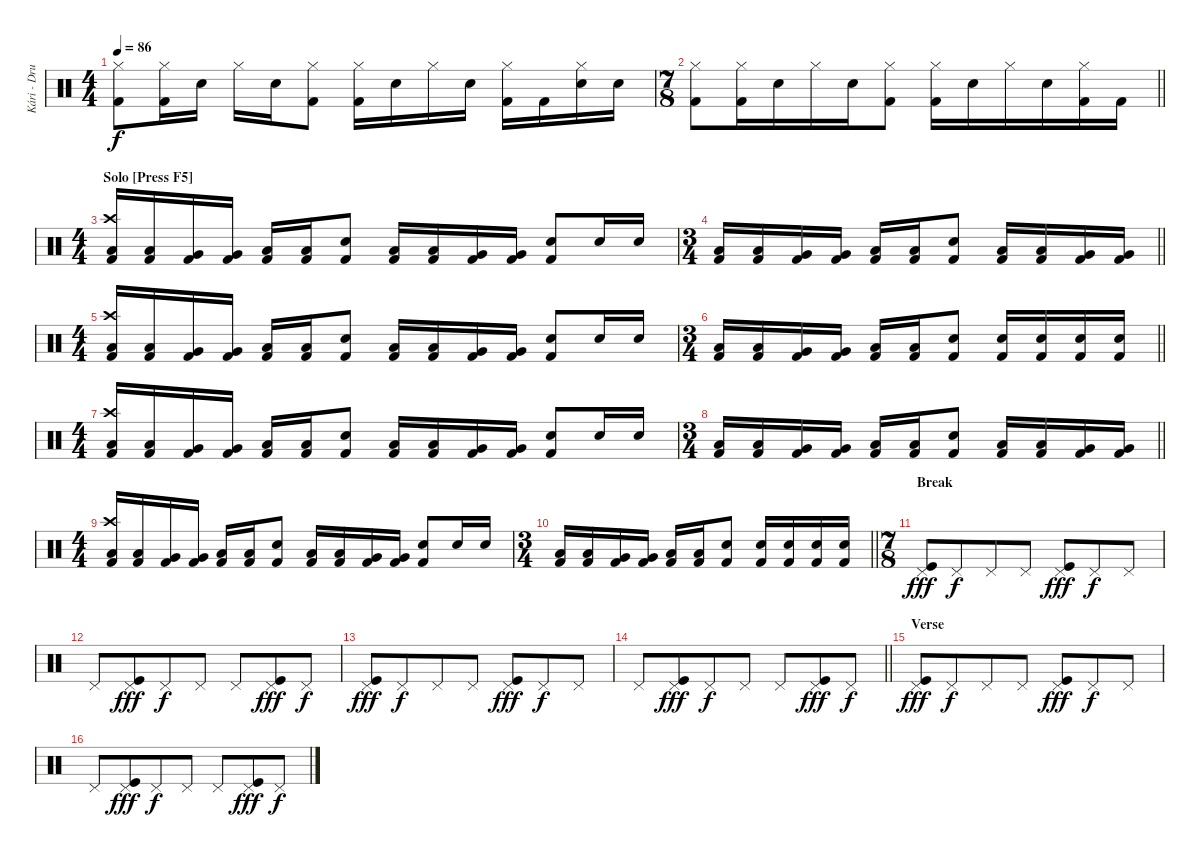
\track ("Kári - Drums" "Kári - Dru") {instrument percussion}
\staff {score}
\articulation defaults
\ts (4 4)
\tempo 86
\clef neutral
\ks c
("Hi-Hat (closed)" "Kick (hit) 2").8{dy f} ("Hi-Hat (closed)" "Kick (hit) 2").16 "Electric Snare (hit)".16 "Hi-Hat (closed)".16 "Electric Snare (hit)".16 ("Hi-Hat (closed)" "Kick (hit) 2").8 ("Hi-Hat (closed)" "Kick (hit) 2").16 "Electric Snare (hit)".16 "Hi-Hat (closed)".16 "Electric Snare (hit)".16 ("Hi-Hat (closed)" "Kick (hit) 2").16 "Kick (hit) 2".16 ("Hi-Hat (closed)" "Electric Snare (hit)").16 "Electric Snare (hit)".16 |
\ts (7 8)
\barLineRight lightlight
("Hi-Hat (closed)" "Kick (hit) 2").8{beam merge} ("Hi-Hat (closed)" "Kick (hit) 2").16 "Electric Snare (hit)".16 "Hi-Hat (closed)".16 "Electric Snare (hit)".16{beam merge} ("Hi-Hat (closed)" "Kick (hit) 2").8 ("Hi-Hat (closed)" "Kick (hit) 2").16 "Electric Snare (hit)".16{beam merge} "Hi-Hat (closed)".16 "Electric Snare (hit)".16{beam merge} ("Hi-Hat (closed)" "Kick (hit) 2").16 "Kick (hit) 2".16 |
\ts (4 4)
\section ("" "Solo [Press F5]")
("Crash high (hit)" "Low Tom (hit)" "Kick (hit) 2").16 ("Low Tom (hit)" "Kick (hit) 2").16 ("Very Low Tom (hit)" "Kick (hit) 2").16 ("Very Low Tom (hit)" "Kick (hit) 2").16 ("Low Floor Tom (hit)" "Kick (hit) 2").16 ("Low Floor Tom (hit)" "Kick (hit) 2").16 ("Electric Snare (hit)" "Kick (hit) 2").8 ("Low Tom (hit)" "Kick (hit) 2").16 ("Low Tom (hit)" "Kick (hit) 2").16 ("Very Low Tom (hit)" "Kick (hit) 2").16 ("Very Low Tom (hit)" "Kick (hit) 2").16 ("Electric Snare (hit)" "Kick (hit) 2").8 "Electric Snare (hit)".16 "Electric Snare (hit)".16 |
\ts (3 4)
\barLineRight lightlight
("Low Tom (hit)" "Kick (hit) 2").16 ("Low Tom (hit)" "Kick (hit) 2").16 ("Very Low Tom (hit)" "Kick (hit) 2").16 ("Very Low Tom (hit)" "Kick (hit) 2").16 ("Low Floor Tom (hit)" "Kick (hit) 2").16 ("Low Floor Tom (hit)" "Kick (hit) 2").16 ("Electric Snare (hit)" "Kick (hit) 2").8 ("Low Tom (hit)" "Kick (hit) 2").16 ("Low Tom (hit)" "Kick (hit) 2").16 ("Very Low Tom (hit)" "Kick (hit) 2").16 ("Very Low Tom (hit)" "Kick (hit) 2").16 |
\ts (4 4)
("Crash high (hit)" "Low Tom (hit)" "Kick (hit) 2").16 ("Low Tom (hit)" "Kick (hit) 2").16 ("Very Low Tom (hit)" "Kick (hit) 2").16 ("Very Low Tom (hit)" "Kick (hit) 2").16 ("Low Floor Tom (hit)" "Kick (hit) 2").16 ("Low Floor Tom (hit)" "Kick (hit) 2").16 ("Electric Snare (hit)" "Kick (hit) 2").8 ("Low Tom (hit)" "Kick (hit) 2").16 ("Low Tom (hit)" "Kick (hit) 2").16 ("Very Low Tom (hit)" "Kick (hit) 2").16 ("Very Low Tom (hit)" "Kick (hit) 2").16 ("Electric Snare (hit)" "Kick (hit) 2").8 "Electric Snare (hit)".16 "Electric Snare (hit)".16 |
\ts (3 4)
\barLineRight lightlight
("Low Tom (hit)" "Kick (hit) 2").16 ("Low Tom (hit)" "Kick (hit) 2").16 ("Very Low Tom (hit)" "Kick (hit) 2").16 ("Very Low Tom (hit)" "Kick (hit) 2").16 ("Low Floor Tom (hit)" "Kick (hit) 2").16 ("Low Floor Tom (hit)" "Kick (hit) 2").16 ("Electric Snare (hit)" "Kick (hit) 2").8 ("Electric Snare (hit)" "Kick (hit) 2").16 ("Electric Snare (hit)" "Kick (hit) 2").16 ("Electric Snare (hit)" "Kick (hit) 2").16 ("Electric Snare (hit)" "Kick (hit) 2").16 |
\ts (4 4)
("Crash high (hit)" "Low Tom (hit)" "Kick (hit) 2").16 ("Low Tom (hit)" "Kick (hit) 2").16 ("Very Low Tom (hit)" "Kick (hit) 2").16 ("Very Low Tom (hit)" "Kick (hit) 2").16 ("Low Floor Tom (hit)" "Kick (hit) 2").16 ("Low Floor Tom (hit)" "Kick (hit) 2").16 ("Electric Snare (hit)" "Kick (hit) 2").8 ("Low Tom (hit)" "Kick (hit) 2").16 ("Low Tom (hit)" "Kick (hit) 2").16 ("Very Low Tom (hit)" "Kick (hit) 2").16 ("Very Low Tom (hit)" "Kick (hit) 2").16 ("Electric Snare (hit)" "Kick (hit) 2").8 "Electric Snare (hit)".16 "Electric Snare (hit)".16 |
\ts (3 4)
\barLineRight lightlight
("Low Tom (hit)" "Kick (hit) 2").16 ("Low Tom (hit)" "Kick (hit) 2").16 ("Very Low Tom (hit)" "Kick (hit) 2").16 ("Very Low Tom (hit)" "Kick (hit) 2").16 ("Low Floor Tom (hit)" "Kick (hit) 2").16 ("Low Floor Tom (hit)" "Kick (hit) 2").16 ("Electric Snare (hit)" "Kick (hit) 2").8 ("Low Tom (hit)" "Kick (hit) 2").16 ("Low Tom (hit)" "Kick (hit) 2").16 ("Very Low Tom (hit)" "Kick (hit) 2").16 ("Very Low Tom (hit)" "Kick (hit) 2").16 |
\ts (4 4)
("Crash high (hit)" "Low Tom (hit)" "Kick (hit) 2").16 ("Low Tom (hit)" "Kick (hit) 2").16 ("Very Low Tom (hit)" "Kick (hit) 2").16 ("Very Low Tom (hit)" "Kick (hit) 2").16 ("Low Floor Tom (hit)" "Kick (hit) 2").16 ("Low Floor Tom (hit)" "Kick (hit) 2").16 ("Electric Snare (hit)" "Kick (hit) 2").8 ("Low Tom (hit)" "Kick (hit) 2").16 ("Low Tom (hit)" "Kick (hit) 2").16 ("Very Low Tom (hit)" "Kick (hit) 2").16 ("Very Low Tom (hit)" "Kick (hit) 2").16 ("Electric Snare (hit)" "Kick (hit) 2").8 "Electric Snare (hit)".16 "Electric Snare (hit)".16 |
\ts (3 4)
\barLineRight lightlight
("Low Tom (hit)" "Kick (hit) 2").16 ("Low Tom (hit)" "Kick (hit) 2").16 ("Very Low Tom (hit)" "Kick (hit) 2").16 ("Very Low Tom (hit)" "Kick (hit) 2").16 ("Low Floor Tom (hit)" "Kick (hit) 2").16 ("Low Floor Tom (hit)" "Kick (hit) 2").16 ("Electric Snare (hit)" "Kick (hit) 2").8 ("Electric Snare (hit)" "Kick (hit) 2").16 ("Electric Snare (hit)" "Kick (hit) 2").16 ("Electric Snare (hit)" "Kick (hit) 2").16 ("Electric Snare (hit)" "Kick (hit) 2").16 |
\ts (7 8)
\section ("" "Break")
("Pedal Hi-Hat (hit)" "Kick (hit)").8{dy fff} "Pedal Hi-Hat (hit)".8{dy f} "Pedal Hi-Hat (hit)".8 "Pedal Hi-Hat (hit)".8 ("Pedal Hi-Hat (hit)" "Kick (hit)").8{dy fff} "Pedal Hi-Hat (hit)".8{dy f} "Pedal Hi-Hat (hit)".8 |
"Pedal Hi-Hat (hit)".8 ("Pedal Hi-Hat (hit)" "Kick (hit)").8{dy fff} "Pedal Hi-Hat (hit)".8{dy f} "Pedal Hi-Hat (hit)".8 "Pedal Hi-Hat (hit)".8 ("Pedal Hi-Hat (hit)" "Kick (hit)").8{dy fff} "Pedal Hi-Hat (hit)".8{dy f} |
("Pedal Hi-Hat (hit)" "Kick (hit)").8{dy fff} "Pedal Hi-Hat (hit)".8{dy f} "Pedal Hi-Hat (hit)".8 "Pedal Hi-Hat (hit)".8 ("Pedal Hi-Hat (hit)" "Kick (hit)").8{dy fff} "Pedal Hi-Hat (hit)".8{dy f} "Pedal Hi-Hat (hit)".8 |
\barLineRight lightlight "Pedal Hi-Hat (hit)".8
("Pedal Hi-Hat (hit)" "Kick (hit)").8{dy fff} "Pedal Hi-Hat (hit)".8{dy f} "Pedal Hi-Hat (hit)".8 "Pedal Hi-Hat (hit)".8 ("Pedal Hi-Hat (hit)" "Kick (hit)").8{dy fff} "Pedal Hi-Hat (hit)".8{dy f} |
\section ("" "Verse")
("Pedal Hi-Hat (hit)" "Kick (hit)").8{dy fff} "Pedal Hi-Hat (hit)".8{dy f} "Pedal Hi-Hat (hit)".8 "Pedal Hi-Hat (hit)".8 ("Pedal Hi-Hat (hit)" "Kick (hit)").8{dy fff} "Pedal Hi-Hat (hit)".8{dy f} "Pedal Hi-Hat (hit)".8 |
"Pedal Hi-Hat (hit)".8 ("Pedal Hi-Hat (hit)" "Kick (hit)").8{dy fff} "Pedal Hi-Hat (hit)".8{dy f} "Pedal Hi-Hat (hit)".8 "Pedal Hi-Hat (hit)".8 ("Pedal Hi-Hat (hit)" "Kick (hit)").8{dy fff} "Pedal Hi-Hat (hit)".8{dy f}
